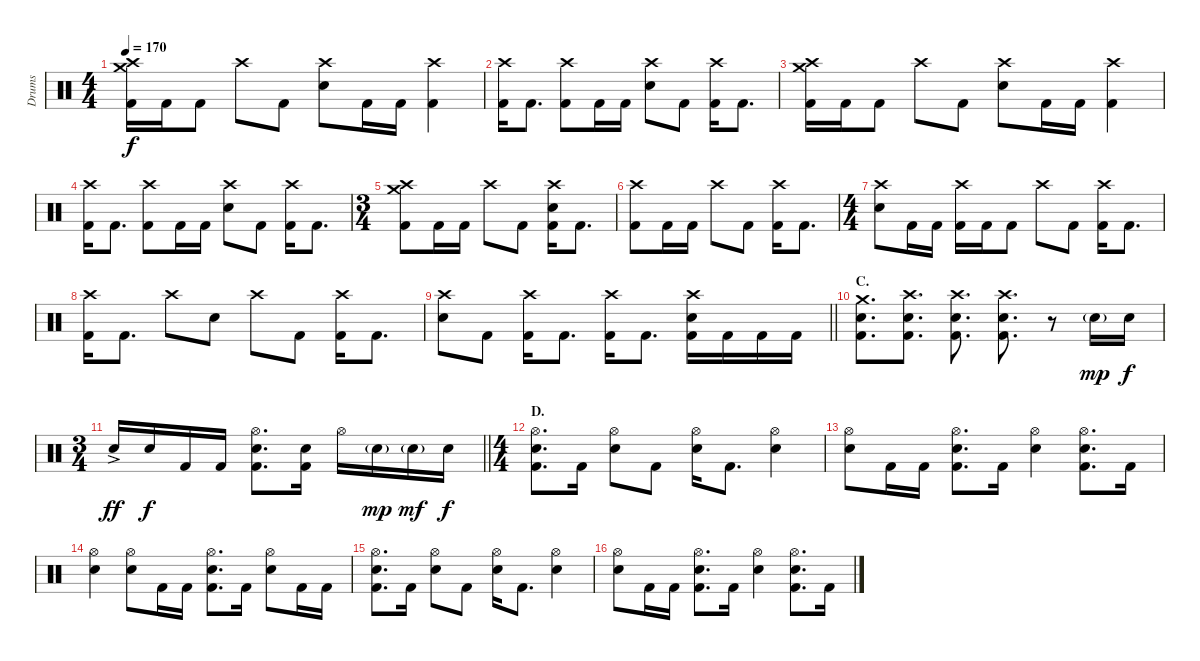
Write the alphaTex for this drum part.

\track ("Drums" "Drums") {instrument percussion}
\staff {score}
\articulation defaults
\ts (4 4)
\tempo 170
\clef neutral
\ks c
("Crash medium (hit)" "Crash high (hit)" "Kick (hit) 2").16{dy f} "Kick (hit) 2".16 "Kick (hit) 2".8 "Crash high (hit)".8 "Kick (hit) 2".8 ("Crash high (hit)" "Electric Snare (hit)").8 "Kick (hit) 2".16 "Kick (hit) 2".16 ("Crash high (hit)" "Kick (hit) 2").4 |
("Crash high (hit)" "Kick (hit) 2").16 "Kick (hit) 2".8{d} ("Crash high (hit)" "Kick (hit) 2").8 "Kick (hit) 2".16 "Kick (hit) 2".16 ("Crash high (hit)" "Electric Snare (hit)").8 "Kick (hit) 2".8 ("Crash high (hit)" "Kick (hit) 2").16 "Kick (hit) 2".8{d} |
("Crash medium (hit)" "Crash high (hit)" "Kick (hit) 2").16 "Kick (hit) 2".16 "Kick (hit) 2".8 "Crash high (hit)".8 "Kick (hit) 2".8 ("Crash high (hit)" "Electric Snare (hit)").8 "Kick (hit) 2".16 "Kick (hit) 2".16 ("Crash high (hit)" "Kick (hit) 2").4 |
("Crash high (hit)" "Kick (hit) 2").16 "Kick (hit) 2".8{d} ("Crash high (hit)" "Kick (hit) 2").8 "Kick (hit) 2".16 "Kick (hit) 2".16 ("Crash high (hit)" "Electric Snare (hit)").8 "Kick (hit) 2".8 ("Crash high (hit)" "Kick (hit) 2").16 "Kick (hit) 2".8{d} |
\ts (3 4)
("Crash medium (hit)" "Crash high (hit)" "Kick (hit) 2").8 "Kick (hit) 2".16 "Kick (hit) 2".16 "Crash high (hit)".8 "Kick (hit) 2".8 ("Crash high (hit)" "Electric Snare (hit)" "Kick (hit) 2").16 "Kick (hit) 2".8{d} |
("Crash high (hit)" "Kick (hit) 2").8 "Kick (hit) 2".16 "Kick (hit) 2".16 "Crash high (hit)".8 "Kick (hit) 2".8 ("Crash high (hit)" "Kick (hit) 2").16 "Kick (hit) 2".8{d} |
\ts (4 4)
("Crash high (hit)" "Electric Snare (hit)").8 "Kick (hit) 2".16 "Kick (hit) 2".16 ("Crash high (hit)" "Kick (hit) 2").16 "Kick (hit) 2".16 "Kick (hit) 2".8 "Crash high (hit)".8 "Kick (hit) 2".8 ("Crash high (hit)" "Kick (hit) 2").16 "Kick (hit) 2".8{d} |
("Crash high (hit)" "Kick (hit) 2").16 "Kick (hit) 2".8{d} "Crash high (hit)".8 "Electric Snare (hit)".8 "Crash high (hit)".8 "Kick (hit) 2".8 ("Crash high (hit)" "Kick (hit) 2").16 "Kick (hit) 2".8{d} |
\barLineRight lightlight
("Crash high (hit)" "Electric Snare (hit)").8 "Kick (hit) 2".8 ("Crash high (hit)" "Kick (hit) 2").16 "Kick (hit) 2".8{d} ("Crash high (hit)" "Kick (hit) 2").16 "Kick (hit) 2".8{d} ("Crash high (hit)" "Electric Snare (hit)" "Kick (hit) 2").16 "Kick (hit) 2".16 "Kick (hit) 2".16 "Kick (hit) 2".16 |
\section ("" "C.")
("Crash medium (hit)" "Electric Snare (hit)" "Kick (hit) 2").8{d} ("Crash high (hit)" "Electric Snare (hit)" "Kick (hit) 2").8{d} ("Crash high (hit)" "Electric Snare (hit)" "Kick (hit) 2").8{d} ("Crash high (hit)" "Electric Snare (hit)" "Kick (hit) 2").8{d} r.8 "Electric Snare (hit)"{g}.16{dy mp} "Electric Snare (hit)".16{dy f} |
\ts (3 4)
\barLineRight lightlight "Electric Snare (hit)"{ac}.16{dy ff} "Electric Snare (hit)".16{dy f} "Kick (hit) 2".16 "Kick (hit) 2".16
("Hi-Hat (open)" "Electric Snare (hit)" "Kick (hit) 2").8{d} ("Electric Snare (hit)" "Kick (hit) 2").16 "Hi-Hat (open)".16 "Electric Snare (hit)"{g}.16{dy mp} "Electric Snare (hit)"{g}.16{dy mf} "Electric Snare (hit)".16{dy f} |
\ts (4 4)
\section ("" "D.")
("Hi-Hat (open)" "Electric Snare (hit)" "Kick (hit) 2").8{d} "Kick (hit) 2".16 ("Hi-Hat (open)" "Electric Snare (hit)").8 "Kick (hit) 2".8 ("Hi-Hat (open)" "Electric Snare (hit)").16 "Kick (hit) 2".8{d} ("Hi-Hat (open)" "Electric Snare (hit)").4 |
("Hi-Hat (open)" "Electric Snare (hit)").8 "Kick (hit) 2".16 "Kick (hit) 2".16 ("Hi-Hat (open)" "Electric Snare (hit)" "Kick (hit) 2").8{d} "Kick (hit) 2".16 ("Hi-Hat (open)" "Electric Snare (hit)").4 ("Hi-Hat (open)" "Electric Snare (hit)" "Kick (hit) 2").8{d} "Kick (hit) 2".16 |
("Hi-Hat (open)" "Electric Snare (hit)").4 ("Hi-Hat (open)" "Electric Snare (hit)").8 "Kick (hit) 2".16 "Kick (hit) 2".16 ("Hi-Hat (open)" "Electric Snare (hit)" "Kick (hit) 2").8{d} "Kick (hit) 2".16 ("Hi-Hat (open)" "Electric Snare (hit)").8 "Kick (hit) 2".16 "Kick (hit) 2".16 |
("Hi-Hat (open)" "Electric Snare (hit)" "Kick (hit) 2").8{d} "Kick (hit) 2".16 ("Hi-Hat (open)" "Electric Snare (hit)").8 "Kick (hit) 2".8 ("Hi-Hat (open)" "Electric Snare (hit)").16 "Kick (hit) 2".8{d} ("Hi-Hat (open)" "Electric Snare (hit)").4 |
("Hi-Hat (open)" "Electric Snare (hit)").8 "Kick (hit) 2".16 "Kick (hit) 2".16 ("Hi-Hat (open)" "Electric Snare (hit)" "Kick (hit) 2").8{d} "Kick (hit) 2".16 ("Hi-Hat (open)" "Electric Snare (hit)").4 ("Hi-Hat (open)" "Electric Snare (hit)" "Kick (hit) 2").8{d} "Kick (hit) 2".16
